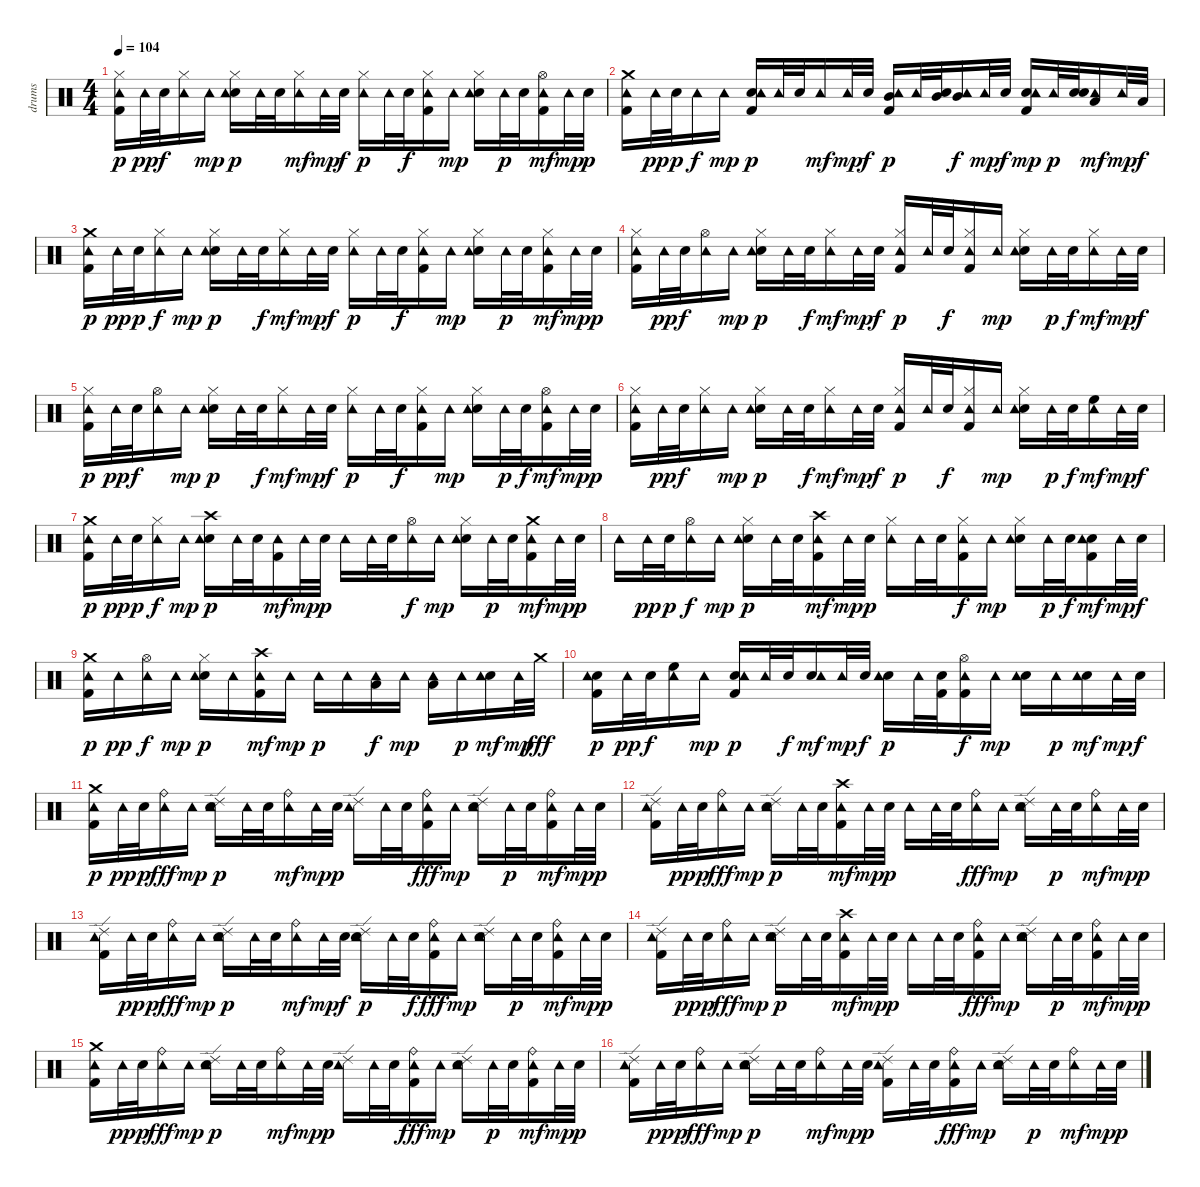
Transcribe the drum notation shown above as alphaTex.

\track ("drums" "drums") {instrument percussion}
\staff {score}
\articulation defaults
\ts (4 4)
\tempo 104
\clef neutral
\ks c
("Kick (hit) 2" "Hi-Hat (closed)" "Tambourine (hit)").16{dy p} "Tambourine (hit)".32{dy pp} "Electric Snare (hit)".32{dy f} ("Hi-Hat (closed)" "Tambourine (hit)").16 "Tambourine (hit)".16{dy mp} ("Electric Snare (hit)" "Hi-Hat (closed)" "Tambourine (hit)").16{dy p} "Tambourine (hit)".32 "Electric Snare (hit)".32 ("Hi-Hat (closed)" "Tambourine (hit)").16{dy mf} "Tambourine (hit)".32{dy mp} "Electric Snare (hit)".32{dy f} ("Hi-Hat (closed)" "Tambourine (hit)").16{dy p} "Tambourine (hit)".32 "Electric Snare (hit)".32{dy f} ("Kick (hit) 2" "Hi-Hat (closed)" "Tambourine (hit)").16 "Tambourine (hit)".16{dy mp} ("Electric Snare (hit)" "Hi-Hat (closed)" "Tambourine (hit)").16 "Tambourine (hit)".32{dy p} "Electric Snare (hit)".32 ("Kick (hit) 2" "Hi-Hat (open)" "Tambourine (hit)").16{dy mf} "Tambourine (hit)".32{dy mp} "Electric Snare (hit)".32{dy p} |
("Kick (hit) 2" "Crash medium (hit)" "Tambourine (hit)").16 "Tambourine (hit)".32{dy pp} "Electric Snare (hit)".32{dy p} "Tambourine (hit)".16{dy f} "Tambourine (hit)".16{dy mp} ("Electric Snare (hit)" "Kick (hit) 2" "Tambourine (hit)").16{dy p} "Tambourine (hit)".32 "Electric Snare (hit)".32 "Tambourine (hit)".16{dy mf} "Tambourine (hit)".32{dy mp} "Electric Snare (hit)".32{dy f} ("Kick (hit) 2" "Mid Tom (hit)" "Tambourine (hit)").16{dy p} "Tambourine (hit)".32 ("Mid Tom (hit)" "Electric Snare (hit)").32 ("Mid Tom (hit)" "Tambourine (hit)").16{dy f} "Tambourine (hit)".32{dy mp} "Electric Snare (hit)".32{dy f} ("Electric Snare (hit)" "Kick (hit) 2" "Tambourine (hit)").16{dy mp} "Tambourine (hit)".32{dy p} ("Electric Snare (hit)" "Electric Snare (hit)").32 ("Low Tom (hit)" "Tambourine (hit)").16{dy mf} "Tambourine (hit)".32{dy mp} "Low Tom (hit)".32{dy f} |
("Kick (hit) 2" "Crash medium (hit)" "Tambourine (hit)").16{dy p} "Tambourine (hit)".32{dy pp} "Electric Snare (hit)".32{dy p} ("Hi-Hat (closed)" "Tambourine (hit)").16{dy f} "Tambourine (hit)".16{dy mp} ("Electric Snare (hit)" "Hi-Hat (closed)" "Tambourine (hit)").16{dy p} "Tambourine (hit)".32 "Electric Snare (hit)".32{dy f} ("Hi-Hat (closed)" "Tambourine (hit)").16{dy mf} "Tambourine (hit)".32{dy mp} "Electric Snare (hit)".32{dy f} ("Hi-Hat (closed)" "Tambourine (hit)").16{dy p} "Tambourine (hit)".32 "Electric Snare (hit)".32{dy f} ("Kick (hit) 2" "Hi-Hat (closed)" "Tambourine (hit)").16 "Tambourine (hit)".16{dy mp} ("Electric Snare (hit)" "Hi-Hat (closed)" "Tambourine (hit)").16 "Tambourine (hit)".32{dy p} "Electric Snare (hit)".32 ("Kick (hit) 2" "Hi-Hat (closed)" "Tambourine (hit)").16{dy mf} "Tambourine (hit)".32{dy mp} "Electric Snare (hit)".32{dy p} |
("Kick (hit) 2" "Hi-Hat (closed)" "Tambourine (hit)").16 "Tambourine (hit)".32{dy pp} "Electric Snare (hit)".32{dy f} ("Hi-Hat (open)" "Tambourine (hit)").16 "Tambourine (hit)".16{dy mp} ("Electric Snare (hit)" "Hi-Hat (closed)" "Tambourine (hit)").16{dy p} "Tambourine (hit)".32 "Electric Snare (hit)".32{dy f} ("Hi-Hat (closed)" "Tambourine (hit)").16{dy mf} "Tambourine (hit)".32{dy mp} "Electric Snare (hit)".32{dy f} ("Kick (hit) 2" "Hi-Hat (closed)" "Tambourine (hit)").16{dy p} "Tambourine (hit)".32 "Electric Snare (hit)".32{dy f} ("Kick (hit) 2" "Hi-Hat (closed)" "Tambourine (hit)").16 "Tambourine (hit)".16{dy mp} ("Electric Snare (hit)" "Hi-Hat (closed)" "Tambourine (hit)").16 "Tambourine (hit)".32{dy p} "Electric Snare (hit)".32{dy f} ("Hi-Hat (closed)" "Tambourine (hit)").16{dy mf} "Tambourine (hit)".32{dy mp} "Electric Snare (hit)".32{dy f} |
("Kick (hit) 2" "Hi-Hat (closed)" "Tambourine (hit)").16{dy p} "Tambourine (hit)".32{dy pp} "Electric Snare (hit)".32{dy f} ("Hi-Hat (open)" "Tambourine (hit)").16 "Tambourine (hit)".16{dy mp} ("Electric Snare (hit)" "Hi-Hat (closed)" "Tambourine (hit)").16{dy p} "Tambourine (hit)".32 "Electric Snare (hit)".32{dy f} ("Hi-Hat (closed)" "Tambourine (hit)").16{dy mf} "Tambourine (hit)".32{dy mp} "Electric Snare (hit)".32{dy f} ("Hi-Hat (closed)" "Tambourine (hit)").16{dy p} "Tambourine (hit)".32 "Electric Snare (hit)".32{dy f} ("Kick (hit) 2" "Hi-Hat (closed)" "Tambourine (hit)").16 "Tambourine (hit)".16{dy mp} ("Electric Snare (hit)" "Hi-Hat (closed)" "Tambourine (hit)").16 "Tambourine (hit)".32{dy p} "Electric Snare (hit)".32{dy f} ("Kick (hit) 2" "Hi-Hat (open)" "Tambourine (hit)").16{dy mf} "Tambourine (hit)".32{dy mp} "Electric Snare (hit)".32{dy p} |
("Kick (hit) 2" "Hi-Hat (closed)" "Tambourine (hit)").16 "Tambourine (hit)".32{dy pp} "Electric Snare (hit)".32{dy f} ("Hi-Hat (closed)" "Tambourine (hit)").16 "Tambourine (hit)".16{dy mp} ("Electric Snare (hit)" "Hi-Hat (closed)" "Tambourine (hit)").16{dy p} "Tambourine (hit)".32 "Electric Snare (hit)".32{dy f} ("Hi-Hat (closed)" "Tambourine (hit)").16{dy mf} "Tambourine (hit)".32{dy mp} "Electric Snare (hit)".32{dy f} ("Kick (hit) 2" "Hi-Hat (closed)" "Tambourine (hit)").16{dy p} "Tambourine (hit)".32 "Electric Snare (hit)".32{dy f} ("Kick (hit) 2" "Hi-Hat (closed)" "Tambourine (hit)").16 "Tambourine (hit)".16{dy mp} ("Electric Snare (hit)" "Hi-Hat (closed)" "Tambourine (hit)").16 "Tambourine (hit)".32{dy p} "Electric Snare (hit)".32{dy f} ("High Floor Tom (hit)" "Tambourine (hit)").16{dy mf} "Tambourine (hit)".32{dy mp} "Electric Snare (hit)".32{dy f} |
("Kick (hit) 2" "Crash medium (hit)" "Tambourine (hit)").16{dy p} "Tambourine (hit)".32{dy pp} "Electric Snare (hit)".32{dy p} ("Hi-Hat (closed)" "Tambourine (hit)").16{dy f} "Tambourine (hit)".16{dy mp} ("Electric Snare (hit)" "Crash high (hit)" "Tambourine (hit)").16{dy p} "Tambourine (hit)".32 "Electric Snare (hit)".32 ("Kick (hit) 2" "Tambourine (hit)").16{dy mf} "Tambourine (hit)".32{dy mp} "Electric Snare (hit)".32{dy p} "Tambourine (hit)".16 "Tambourine (hit)".32 "Electric Snare (hit)".32 ("Hi-Hat (open)" "Tambourine (hit)").16{dy f} "Tambourine (hit)".16{dy mp} ("Electric Snare (hit)" "Hi-Hat (closed)" "Tambourine (hit)").16 "Tambourine (hit)".32{dy p} "Electric Snare (hit)".32 ("Kick (hit) 2" "Crash medium (hit)" "Tambourine (hit)").16{dy mf} "Tambourine (hit)".32{dy mp} "Electric Snare (hit)".32{dy p} |
"Tambourine (hit)".16 "Tambourine (hit)".32{dy pp} "Electric Snare (hit)".32{dy p} ("Hi-Hat (open)" "Tambourine (hit)").16{dy f} "Tambourine (hit)".16{dy mp} ("Electric Snare (hit)" "Hi-Hat (closed)" "Tambourine (hit)").16{dy p} "Tambourine (hit)".32 "Electric Snare (hit)".32 ("Kick (hit) 2" "Crash high (hit)" "Tambourine (hit)").16{dy mf} "Tambourine (hit)".32{dy mp} "Electric Snare (hit)".32{dy p} ("Hi-Hat (closed)" "Tambourine (hit)").16 "Tambourine (hit)".32 "Electric Snare (hit)".32 ("Kick (hit) 2" "Hi-Hat (closed)" "Tambourine (hit)").16{dy f} "Tambourine (hit)".16{dy mp} ("Electric Snare (hit)" "Hi-Hat (closed)" "Tambourine (hit)").16 "Tambourine (hit)".32{dy p} "Electric Snare (hit)".32{dy f} ("Kick (hit) 2" "Electric Snare (hit)" "Tambourine (hit)").16{dy mf} "Tambourine (hit)".32{dy mp} "Electric Snare (hit)".32{dy f} |
("Kick (hit) 2" "Crash medium (hit)" "Tambourine (hit)").16{dy p} "Tambourine (hit)".16{dy pp} ("Hi-Hat (open)" "Tambourine (hit)").16{dy f} "Tambourine (hit)".16{dy mp} ("Electric Snare (hit)" "Hi-Hat (closed)" "Tambourine (hit)").16{dy p} "Tambourine (hit)".16 ("Kick (hit) 2" "Crash high (hit)" "Tambourine (hit)").16{dy mf} "Tambourine (hit)".16{dy mp} "Tambourine (hit)".16{dy p} "Tambourine (hit)".16 ("Low Tom (hit)" "Tambourine (hit)").16{dy f} "Tambourine (hit)".16{dy mp} ("Low Tom (hit)" "Tambourine (hit)").16 "Tambourine (hit)".16{dy p} ("Electric Snare (hit)" "Tambourine (hit)").16{dy mf} "Tambourine (hit)".32{dy mp} "Crash medium (hit)".32{dy fff} |
("Electric Snare (hit)" "Kick (hit) 2" "Tambourine (hit)").16{dy p} "Tambourine (hit)".32{dy pp} "Electric Snare (hit)".32{dy f} ("High Floor Tom (hit)" "Tambourine (hit)").16 "Tambourine (hit)".16{dy mp} ("Kick (hit) 2" "Electric Snare (hit)" "Tambourine (hit)").16{dy p} "Tambourine (hit)".32 "Electric Snare (hit)".32{dy f} ("Electric Snare (hit)" "Tambourine (hit)").16{dy mf} "Tambourine (hit)".32{dy mp} "Electric Snare (hit)".32{dy f} ("Electric Snare (hit)" "Tambourine (hit)").16{dy p} "Tambourine (hit)".32 ("Kick (hit) 2" "Electric Snare (hit)").32 ("Kick (hit) 2" "Hi-Hat (open)" "Tambourine (hit)").16{dy f} "Tambourine (hit)".16{dy mp} ("Electric Snare (hit)" "Tambourine (hit)").16 "Tambourine (hit)".16{dy p} ("Electric Snare (hit)" "Tambourine (hit)").16{dy mf} "Tambourine (hit)".32{dy mp} "Electric Snare (hit)".32{dy f} |
("Kick (hit) 2" "Crash medium (hit)" "Tambourine (hit)").16{dy p} "Tambourine (hit)".32{dy pp} "Electric Snare (hit)".32{dy p} ("Ride (bell)" "Tambourine (hit)").16{dy fff} "Tambourine (hit)".16{dy mp} ("Electric Snare (hit)" "Ride (edge) 2" "Tambourine (hit)").16{dy p} "Tambourine (hit)".32 "Electric Snare (hit)".32 ("Ride (bell)" "Tambourine (hit)").16{dy mf} "Tambourine (hit)".32{dy mp} "Electric Snare (hit)".32{dy p} ("Ride (edge) 2" "Tambourine (hit)").16 "Tambourine (hit)".32 "Electric Snare (hit)".32 ("Kick (hit) 2" "Ride (bell)" "Tambourine (hit)").16{dy fff} "Tambourine (hit)".16{dy mp} ("Electric Snare (hit)" "Ride (edge) 2" "Tambourine (hit)").16 "Tambourine (hit)".32{dy p} "Electric Snare (hit)".32 ("Kick (hit) 2" "Ride (bell)" "Tambourine (hit)").16{dy mf} "Tambourine (hit)".32{dy mp} "Electric Snare (hit)".32{dy p} |
("Kick (hit) 2" "Ride (edge) 2" "Tambourine (hit)").16 "Tambourine (hit)".32{dy pp} "Electric Snare (hit)".32{dy p} ("Ride (bell)" "Tambourine (hit)").16{dy fff} "Tambourine (hit)".16{dy mp} ("Electric Snare (hit)" "Ride (edge) 2" "Tambourine (hit)").16{dy p} "Tambourine (hit)".32 "Electric Snare (hit)".32 ("Kick (hit) 2" "Crash high (hit)" "Tambourine (hit)").16{dy mf} "Tambourine (hit)".32{dy mp} "Electric Snare (hit)".32{dy p} "Tambourine (hit)".16 "Tambourine (hit)".32 "Electric Snare (hit)".32 ("Ride (bell)" "Tambourine (hit)").16{dy fff} "Tambourine (hit)".16{dy mp} ("Electric Snare (hit)" "Ride (edge) 2" "Tambourine (hit)").16 "Tambourine (hit)".32{dy p} "Electric Snare (hit)".32 ("Ride (bell)" "Tambourine (hit)").16{dy mf} "Tambourine (hit)".32{dy mp} "Electric Snare (hit)".32{dy p} |
("Kick (hit) 2" "Ride (edge) 2" "Tambourine (hit)").16 "Tambourine (hit)".32{dy pp} "Electric Snare (hit)".32{dy p} ("Ride (bell)" "Tambourine (hit)").16{dy fff} "Tambourine (hit)".16{dy mp} ("Electric Snare (hit)" "Ride (edge) 2" "Tambourine (hit)").16{dy p} "Tambourine (hit)".32 "Electric Snare (hit)".32 ("Ride (bell)" "Tambourine (hit)").16{dy mf} "Tambourine (hit)".32{dy mp} "Electric Snare (hit)".32{dy f} ("Electric Snare (hit)" "Ride (edge) 2" "Tambourine (hit)").16{dy p} "Tambourine (hit)".32 "Electric Snare (hit)".32{dy f} ("Kick (hit) 2" "Ride (bell)" "Tambourine (hit)").16{dy fff} "Tambourine (hit)".16{dy mp} ("Electric Snare (hit)" "Ride (edge) 2" "Tambourine (hit)").16 "Tambourine (hit)".32{dy p} "Electric Snare (hit)".32 ("Kick (hit) 2" "Ride (bell)" "Tambourine (hit)").16{dy mf} "Tambourine (hit)".32{dy mp} "Electric Snare (hit)".32{dy p} |
("Kick (hit) 2" "Ride (edge) 2" "Tambourine (hit)").16 "Tambourine (hit)".32{dy pp} "Electric Snare (hit)".32{dy p} ("Ride (bell)" "Tambourine (hit)").16{dy fff} "Tambourine (hit)".16{dy mp} ("Electric Snare (hit)" "Ride (edge) 2" "Tambourine (hit)").16{dy p} "Tambourine (hit)".32 "Electric Snare (hit)".32 ("Kick (hit) 2" "Crash high (hit)" "Tambourine (hit)").16{dy mf} "Tambourine (hit)".32{dy mp} "Electric Snare (hit)".32{dy p} "Tambourine (hit)".16 "Tambourine (hit)".32 "Electric Snare (hit)".32 ("Kick (hit) 2" "Ride (bell)" "Tambourine (hit)").16{dy fff} "Tambourine (hit)".16{dy mp} ("Electric Snare (hit)" "Ride (edge) 2" "Tambourine (hit)").16 "Tambourine (hit)".32{dy p} "Electric Snare (hit)".32 ("Kick (hit) 2" "Ride (bell)" "Tambourine (hit)").16{dy mf} "Tambourine (hit)".32{dy mp} "Electric Snare (hit)".32{dy p} |
("Kick (hit) 2" "Crash medium (hit)" "Tambourine (hit)").16 "Tambourine (hit)".32{dy pp} "Electric Snare (hit)".32{dy p} ("Ride (bell)" "Tambourine (hit)").16{dy fff} "Tambourine (hit)".16{dy mp} ("Electric Snare (hit)" "Ride (edge) 2" "Tambourine (hit)").16{dy p} "Tambourine (hit)".32 "Electric Snare (hit)".32 ("Ride (bell)" "Tambourine (hit)").16{dy mf} "Tambourine (hit)".32{dy mp} "Electric Snare (hit)".32{dy p} ("Ride (edge) 2" "Tambourine (hit)").16 "Tambourine (hit)".32 "Electric Snare (hit)".32 ("Kick (hit) 2" "Ride (bell)" "Tambourine (hit)").16{dy fff} "Tambourine (hit)".16{dy mp} ("Electric Snare (hit)" "Ride (edge) 2" "Tambourine (hit)").16 "Tambourine (hit)".32{dy p} "Electric Snare (hit)".32 ("Kick (hit) 2" "Ride (bell)" "Tambourine (hit)").16{dy mf} "Tambourine (hit)".32{dy mp} "Electric Snare (hit)".32{dy p} |
("Kick (hit) 2" "Ride (edge) 2" "Tambourine (hit)").16 "Tambourine (hit)".32{dy pp} "Electric Snare (hit)".32{dy p} ("Ride (bell)" "Tambourine (hit)").16{dy fff} "Tambourine (hit)".16{dy mp} ("Electric Snare (hit)" "Ride (edge) 2" "Tambourine (hit)").16{dy p} "Tambourine (hit)".32 "Electric Snare (hit)".32 ("Ride (bell)" "Tambourine (hit)").16{dy mf} "Tambourine (hit)".32{dy mp} "Electric Snare (hit)".32{dy p} ("Kick (hit) 2" "Ride (edge) 2" "Tambourine (hit)").16 "Tambourine (hit)".32 "Electric Snare (hit)".32 ("Kick (hit) 2" "Ride (bell)" "Tambourine (hit)").16{dy fff} "Tambourine (hit)".16{dy mp} ("Electric Snare (hit)" "Ride (edge) 2" "Tambourine (hit)").16 "Tambourine (hit)".32{dy p} "Electric Snare (hit)".32 ("Ride (bell)" "Tambourine (hit)").16{dy mf} "Tambourine (hit)".32{dy mp} "Electric Snare (hit)".32{dy p}
